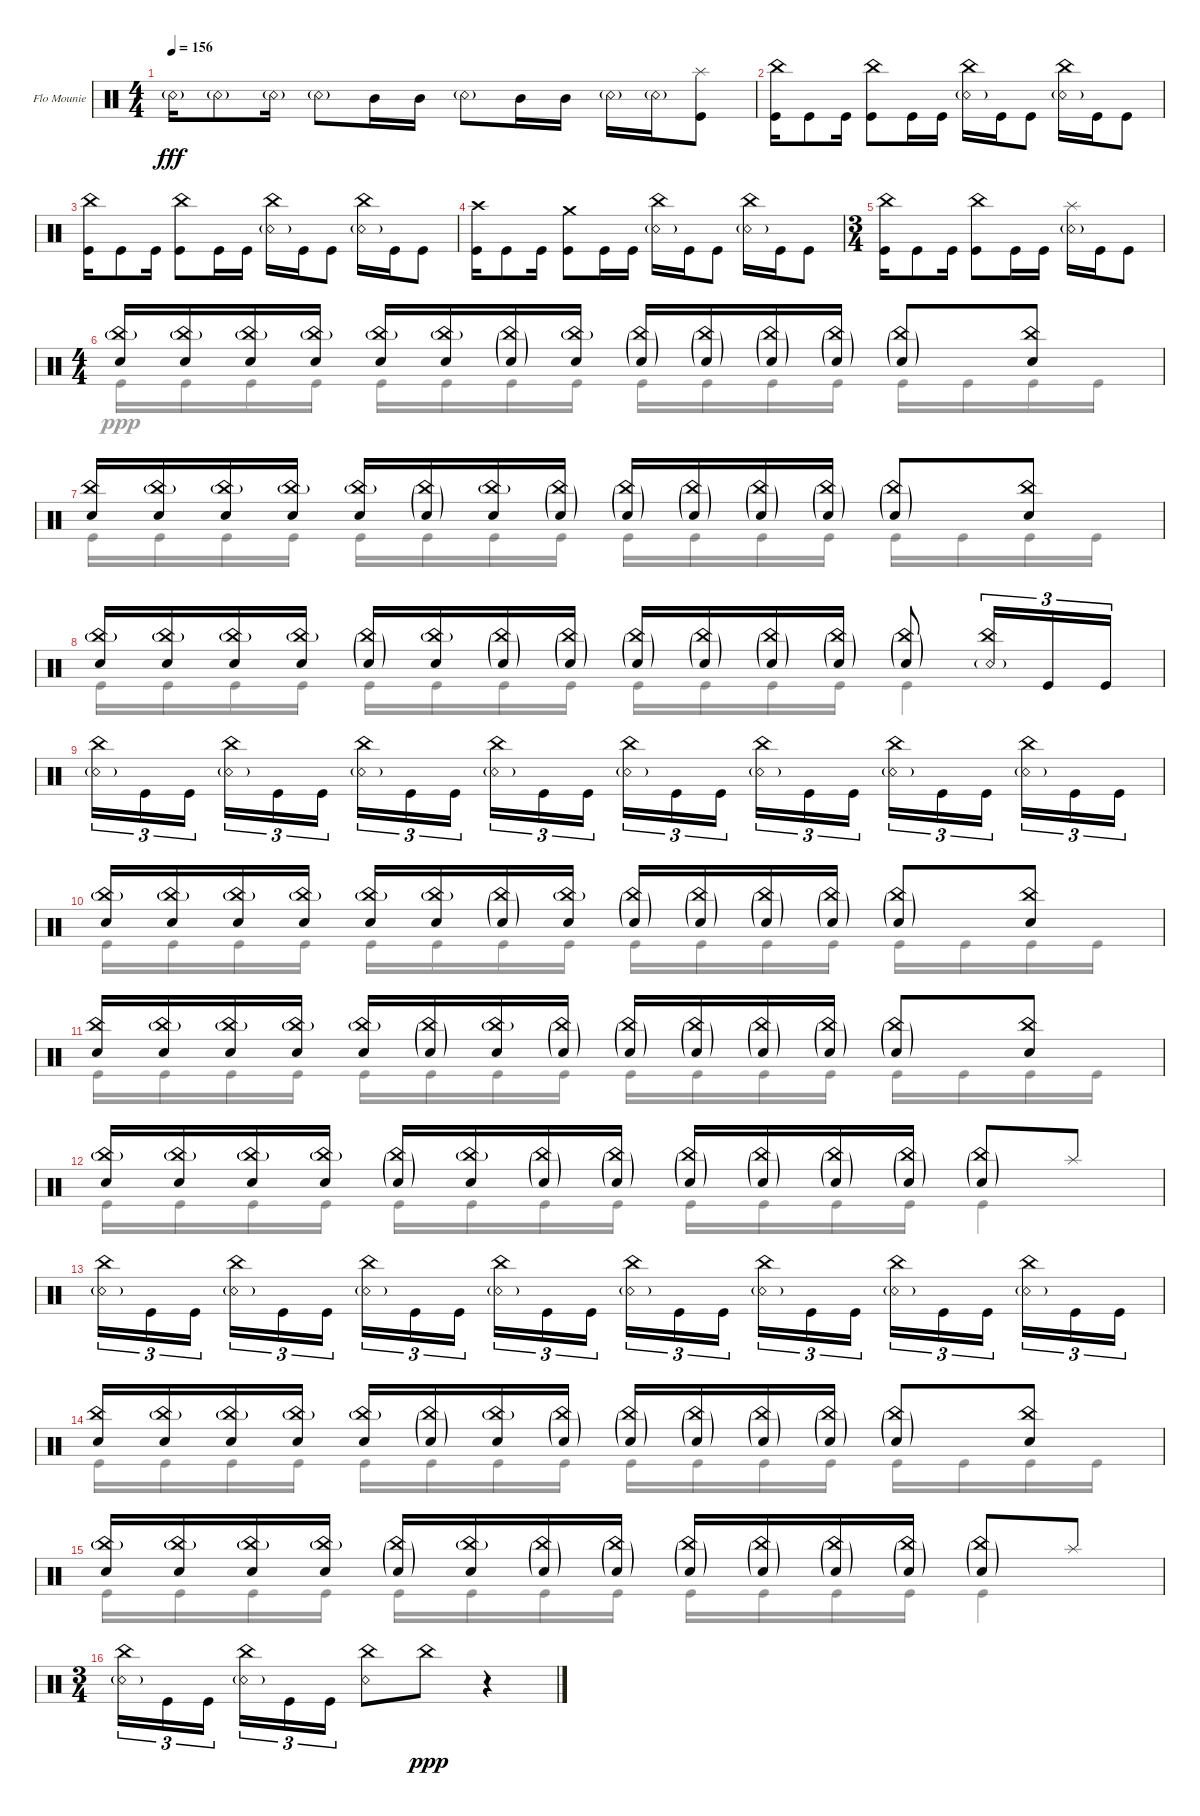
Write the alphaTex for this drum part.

\bracketExtendMode groupsimilarinstruments
\firstSystemTrackNameOrientation horizontal
\otherSystemsTrackNameOrientation horizontal
\track ("Flo Mounier" "Flo Mounie") {instrument percussion}
\staff {score}
\articulation defaults
\voice
\ts (4 4)
\tempo 156
\clef neutral
\ks c "Snare (rim shot)"{g}.16{dy fff} "Snare (rim shot)"{g}.8 "Snare (rim shot)"{g}.16 "Snare (rim shot)"{g}.8 "Mid Tom (hit)".16 "Mid Tom (hit)".16 "Snare (rim shot)"{g}.8 "Mid Tom (hit)".16 "Mid Tom (hit)".16 "Snare (rim shot)"{g}.16 "Snare (rim shot)"{g}.16
("Splash (hit)" "Kick (hit)").8 |
("Kick (hit)" "China (hit)").16 "Kick (hit)".8 "Kick (hit)".16 ("Kick (hit)" "China (hit)").8 "Kick (hit)".16 "Kick (hit)".16 ("Snare (rim shot)"{g} "China (hit)").16 "Kick (hit)".16 "Kick (hit)".8 ("Snare (rim shot)"{g} "China (hit)").16 "Kick (hit)".16 "Kick (hit)".8 |
("Kick (hit)" "China (hit)").16 "Kick (hit)".8 "Kick (hit)".16 ("Kick (hit)" "China (hit)").8 "Kick (hit)".16 "Kick (hit)".16 ("Snare (rim shot)"{g} "China (hit)").16 "Kick (hit)".16 "Kick (hit)".8 ("Snare (rim shot)"{g} "China (hit)").16 "Kick (hit)".16 "Kick (hit)".8 |
("Kick (hit)" "Crash high (hit)").16 "Kick (hit)".8 "Kick (hit)".16 ("Kick (hit)" "Crash medium (hit)").8 "Kick (hit)".16 "Kick (hit)".16 ("Snare (rim shot)"{g} "China (hit)").16 "Kick (hit)".16 "Kick (hit)".8 ("Snare (rim shot)"{g} "China (hit)").16 "Kick (hit)".16 "Kick (hit)".8 |
\ts (3 4)
("Kick (hit)" "China (hit)").16 "Kick (hit)".8 "Kick (hit)".16 ("Kick (hit)" "China (hit)").8 "Kick (hit)".16 "Kick (hit)".16 ("Snare (rim shot)"{g} "Splash (hit)").16 "Kick (hit)".16 "Kick (hit)".8 |
\ts (4 4)
("Snare (hit) 2" "China (hit)"{g}).16 ("Snare (hit) 2" "China (hit)"{g}).16 ("Snare (hit) 2" "China (hit)"{g}).16 ("Snare (hit) 2" "China (hit)"{g}).16 ("Snare (hit) 2" "China (hit)"{g}).16 ("Snare (hit) 2" "China (hit)"{g}).16 ("Snare (hit) 2"{g} "China (hit)"{g}).16 ("Snare (hit) 2" "China (hit)"{g}).16 ("Snare (hit) 2"{g} "China (hit)"{g}).16 ("Snare (hit) 2"{g} "China (hit)"{g}).16 ("Snare (hit) 2"{g} "China (hit)"{g}).16 ("Snare (hit) 2"{g} "China (hit)"{g}).16 ("Snare (hit) 2"{g} "China (hit)"{g}).8 ("Snare (hit) 2" "China (hit)").8 |
("Snare (hit) 2" "China (hit)").16 ("Snare (hit) 2" "China (hit)"{g}).16 ("Snare (hit) 2" "China (hit)"{g}).16 ("Snare (hit) 2" "China (hit)"{g}).16 ("Snare (hit) 2" "China (hit)"{g}).16 ("Snare (hit) 2"{g} "China (hit)"{g}).16 ("Snare (hit) 2" "China (hit)"{g}).16 ("Snare (hit) 2"{g} "China (hit)"{g}).16 ("Snare (hit) 2"{g} "China (hit)"{g}).16 ("Snare (hit) 2"{g} "China (hit)"{g}).16 ("Snare (hit) 2"{g} "China (hit)"{g}).16 ("Snare (hit) 2"{g} "China (hit)"{g}).16 ("Snare (hit) 2"{g} "China (hit)"{g}).8 ("Snare (hit) 2" "China (hit)").8 |
("Snare (hit) 2" "China (hit)"{g}).16 ("Snare (hit) 2" "China (hit)"{g}).16 ("Snare (hit) 2" "China (hit)"{g}).16 ("Snare (hit) 2" "China (hit)"{g}).16 ("Snare (hit) 2"{g} "China (hit)"{g}).16 ("Snare (hit) 2" "China (hit)"{g}).16 ("Snare (hit) 2"{g} "China (hit)"{g}).16 ("Snare (hit) 2"{g} "China (hit)"{g}).16 ("Snare (hit) 2"{g} "China (hit)"{g}).16 ("Snare (hit) 2"{g} "China (hit)"{g}).16 ("Snare (hit) 2"{g} "China (hit)"{g}).16 ("Snare (hit) 2"{g} "China (hit)"{g}).16 ("Snare (hit) 2"{g} "China (hit)"{g}).8 ("Snare (rim shot)"{g} "China (hit)").16{tu (3 2)} "Kick (hit)".16{tu (3 2)} "Kick (hit)".16{tu (3 2)} |
("Snare (rim shot)"{g} "China (hit)").16{tu (3 2)} "Kick (hit)".16{tu (3 2)} "Kick (hit)".16{tu (3 2)} ("Snare (rim shot)"{g} "China (hit)").16{tu (3 2)} "Kick (hit)".16{tu (3 2)} "Kick (hit)".16{tu (3 2)} ("Snare (rim shot)"{g} "China (hit)").16{tu (3 2)} "Kick (hit)".16{tu (3 2)} "Kick (hit)".16{tu (3 2)} ("Snare (rim shot)"{g} "China (hit)").16{tu (3 2)} "Kick (hit)".16{tu (3 2)} "Kick (hit)".16{tu (3 2)} ("Snare (rim shot)"{g} "China (hit)").16{tu (3 2)} "Kick (hit)".16{tu (3 2)} "Kick (hit)".16{tu (3 2)} ("Snare (rim shot)"{g} "China (hit)").16{tu (3 2)} "Kick (hit)".16{tu (3 2)} "Kick (hit)".16{tu (3 2)} ("Snare (rim shot)"{g} "China (hit)").16{tu (3 2)} "Kick (hit)".16{tu (3 2)} "Kick (hit)".16{tu (3 2)} ("Snare (rim shot)"{g} "China (hit)").16{tu (3 2)} "Kick (hit)".16{tu (3 2)} "Kick (hit)".16{tu (3 2)} |
("Snare (hit) 2" "China (hit)"{g}).16 ("Snare (hit) 2" "China (hit)"{g}).16 ("Snare (hit) 2" "China (hit)"{g}).16 ("Snare (hit) 2" "China (hit)"{g}).16 ("Snare (hit) 2" "China (hit)"{g}).16 ("Snare (hit) 2" "China (hit)"{g}).16 ("Snare (hit) 2"{g} "China (hit)"{g}).16 ("Snare (hit) 2" "China (hit)"{g}).16 ("Snare (hit) 2"{g} "China (hit)"{g}).16 ("Snare (hit) 2"{g} "China (hit)"{g}).16 ("Snare (hit) 2"{g} "China (hit)"{g}).16 ("Snare (hit) 2"{g} "China (hit)"{g}).16 ("Snare (hit) 2"{g} "China (hit)"{g}).8 ("Snare (hit) 2" "China (hit)").8 |
("Snare (hit) 2" "China (hit)").16 ("Snare (hit) 2" "China (hit)"{g}).16 ("Snare (hit) 2" "China (hit)"{g}).16 ("Snare (hit) 2" "China (hit)"{g}).16 ("Snare (hit) 2" "China (hit)"{g}).16 ("Snare (hit) 2"{g} "China (hit)"{g}).16 ("Snare (hit) 2" "China (hit)"{g}).16 ("Snare (hit) 2"{g} "China (hit)"{g}).16 ("Snare (hit) 2"{g} "China (hit)"{g}).16 ("Snare (hit) 2"{g} "China (hit)"{g}).16 ("Snare (hit) 2"{g} "China (hit)"{g}).16 ("Snare (hit) 2"{g} "China (hit)"{g}).16 ("Snare (hit) 2"{g} "China (hit)"{g}).8 ("Snare (hit) 2" "China (hit)").8 |
("Snare (hit) 2" "China (hit)"{g}).16 ("Snare (hit) 2" "China (hit)"{g}).16 ("Snare (hit) 2" "China (hit)"{g}).16 ("Snare (hit) 2" "China (hit)"{g}).16 ("Snare (hit) 2"{g} "China (hit)"{g}).16 ("Snare (hit) 2" "China (hit)"{g}).16 ("Snare (hit) 2"{g} "China (hit)"{g}).16 ("Snare (hit) 2"{g} "China (hit)"{g}).16 ("Snare (hit) 2"{g} "China (hit)"{g}).16 ("Snare (hit) 2"{g} "China (hit)"{g}).16 ("Snare (hit) 2"{g} "China (hit)"{g}).16 ("Snare (hit) 2"{g} "China (hit)"{g}).16 ("Snare (hit) 2"{g} "China (hit)"{g}).8 "Splash (hit)".8 |
("Snare (rim shot)"{g} "China (hit)").16{tu (3 2)} "Kick (hit)".16{tu (3 2)} "Kick (hit)".16{tu (3 2)} ("Snare (rim shot)"{g} "China (hit)").16{tu (3 2)} "Kick (hit)".16{tu (3 2)} "Kick (hit)".16{tu (3 2)} ("Snare (rim shot)"{g} "China (hit)").16{tu (3 2)} "Kick (hit)".16{tu (3 2)} "Kick (hit)".16{tu (3 2)} ("Snare (rim shot)"{g} "China (hit)").16{tu (3 2)} "Kick (hit)".16{tu (3 2)} "Kick (hit)".16{tu (3 2)} ("Snare (rim shot)"{g} "China (hit)").16{tu (3 2)} "Kick (hit)".16{tu (3 2)} "Kick (hit)".16{tu (3 2)} ("Snare (rim shot)"{g} "China (hit)").16{tu (3 2)} "Kick (hit)".16{tu (3 2)} "Kick (hit)".16{tu (3 2)} ("Snare (rim shot)"{g} "China (hit)").16{tu (3 2)} "Kick (hit)".16{tu (3 2)} "Kick (hit)".16{tu (3 2)} ("Snare (rim shot)"{g} "China (hit)").16{tu (3 2)} "Kick (hit)".16{tu (3 2)} "Kick (hit)".16{tu (3 2)} |
("Snare (hit) 2" "China (hit)").16 ("Snare (hit) 2" "China (hit)"{g}).16 ("Snare (hit) 2" "China (hit)"{g}).16 ("Snare (hit) 2" "China (hit)"{g}).16 ("Snare (hit) 2" "China (hit)"{g}).16 ("Snare (hit) 2"{g} "China (hit)"{g}).16 ("Snare (hit) 2" "China (hit)"{g}).16 ("Snare (hit) 2"{g} "China (hit)"{g}).16 ("Snare (hit) 2"{g} "China (hit)"{g}).16 ("Snare (hit) 2"{g} "China (hit)"{g}).16 ("Snare (hit) 2"{g} "China (hit)"{g}).16 ("Snare (hit) 2"{g} "China (hit)"{g}).16 ("Snare (hit) 2"{g} "China (hit)"{g}).8 ("Snare (hit) 2" "China (hit)").8 |
("Snare (hit) 2" "China (hit)"{g}).16 ("Snare (hit) 2" "China (hit)"{g}).16 ("Snare (hit) 2" "China (hit)"{g}).16 ("Snare (hit) 2" "China (hit)"{g}).16 ("Snare (hit) 2"{g} "China (hit)"{g}).16 ("Snare (hit) 2" "China (hit)"{g}).16 ("Snare (hit) 2"{g} "China (hit)"{g}).16 ("Snare (hit) 2"{g} "China (hit)"{g}).16 ("Snare (hit) 2"{g} "China (hit)"{g}).16 ("Snare (hit) 2"{g} "China (hit)"{g}).16 ("Snare (hit) 2"{g} "China (hit)"{g}).16 ("Snare (hit) 2"{g} "China (hit)"{g}).16 ("Snare (hit) 2"{g} "China (hit)"{g}).8 "Splash (hit)".8 |
\ts (3 4)
("Snare (rim shot)"{g} "China (hit)").16{tu (3 2)} "Kick (hit)".16{tu (3 2)} "Kick (hit)".16{tu (3 2)} ("Snare (rim shot)"{g} "China (hit)").16{tu (3 2)} "Kick (hit)".16{tu (3 2)} "Kick (hit)".16{tu (3 2)} ("Snare (rim shot)" "China (hit)").8 "China (hit)".8{dy ppp} r.4
\voice
\clef neutral
\ottava regular
\simile none
\ks c
|
|
|
|
|
"Kick (hit)".16 "Kick (hit)".16 "Kick (hit)".16 "Kick (hit)".16 "Kick (hit)".16 "Kick (hit)".16 "Kick (hit)".16 "Kick (hit)".16 "Kick (hit)".16 "Kick (hit)".16 "Kick (hit)".16 "Kick (hit)".16 "Kick (hit)".16 "Kick (hit)".16 "Kick (hit)".16 "Kick (hit)".16 |
"Kick (hit)".16 "Kick (hit)".16 "Kick (hit)".16 "Kick (hit)".16 "Kick (hit)".16 "Kick (hit)".16 "Kick (hit)".16 "Kick (hit)".16 "Kick (hit)".16 "Kick (hit)".16 "Kick (hit)".16 "Kick (hit)".16 "Kick (hit)".16 "Kick (hit)".16 "Kick (hit)".16 "Kick (hit)".16 |
"Kick (hit)".16 "Kick (hit)".16 "Kick (hit)".16 "Kick (hit)".16 "Kick (hit)".16 "Kick (hit)".16 "Kick (hit)".16 "Kick (hit)".16 "Kick (hit)".16 "Kick (hit)".16 "Kick (hit)".16 "Kick (hit)".16 "Kick (hit)".4 |
|
"Kick (hit)".16 "Kick (hit)".16 "Kick (hit)".16 "Kick (hit)".16 "Kick (hit)".16 "Kick (hit)".16 "Kick (hit)".16 "Kick (hit)".16 "Kick (hit)".16 "Kick (hit)".16 "Kick (hit)".16 "Kick (hit)".16 "Kick (hit)".16 "Kick (hit)".16 "Kick (hit)".16 "Kick (hit)".16 |
"Kick (hit)".16 "Kick (hit)".16 "Kick (hit)".16 "Kick (hit)".16 "Kick (hit)".16 "Kick (hit)".16 "Kick (hit)".16 "Kick (hit)".16 "Kick (hit)".16 "Kick (hit)".16 "Kick (hit)".16 "Kick (hit)".16 "Kick (hit)".16 "Kick (hit)".16 "Kick (hit)".16 "Kick (hit)".16 |
"Kick (hit)".16 "Kick (hit)".16 "Kick (hit)".16 "Kick (hit)".16 "Kick (hit)".16 "Kick (hit)".16 "Kick (hit)".16 "Kick (hit)".16 "Kick (hit)".16 "Kick (hit)".16 "Kick (hit)".16 "Kick (hit)".16 "Kick (hit)".4 |
|
"Kick (hit)".16 "Kick (hit)".16 "Kick (hit)".16 "Kick (hit)".16 "Kick (hit)".16 "Kick (hit)".16 "Kick (hit)".16 "Kick (hit)".16 "Kick (hit)".16 "Kick (hit)".16 "Kick (hit)".16 "Kick (hit)".16 "Kick (hit)".16 "Kick (hit)".16 "Kick (hit)".16 "Kick (hit)".16 |
"Kick (hit)".16 "Kick (hit)".16 "Kick (hit)".16 "Kick (hit)".16 "Kick (hit)".16 "Kick (hit)".16 "Kick (hit)".16 "Kick (hit)".16 "Kick (hit)".16 "Kick (hit)".16 "Kick (hit)".16 "Kick (hit)".16 "Kick (hit)".4 |
